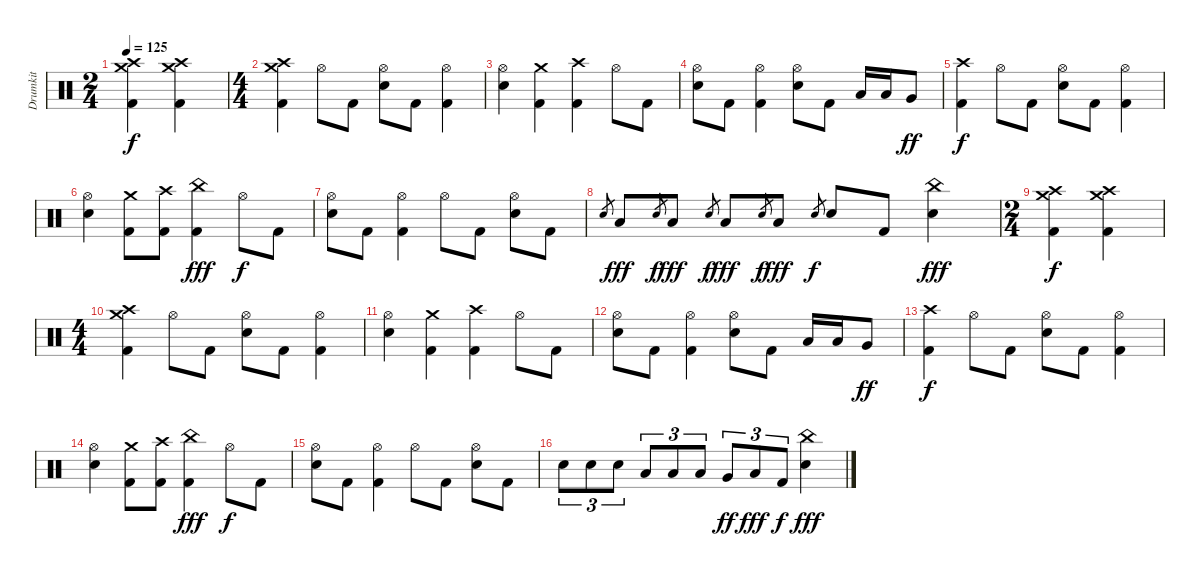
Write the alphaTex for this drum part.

\track ("Drumkit" "Drumkit") {instrument percussion}
\staff {score}
\articulation defaults
\ts (2 4)
\tempo 125
\clef neutral
\ks c
("Crash high (hit)" "Crash medium (hit)" "Kick (hit) 2").4{dy f} ("Crash high (hit)" "Crash medium (hit)" "Kick (hit) 2").4 |
\ts (4 4)
("Crash high (hit)" "Crash medium (hit)" "Kick (hit) 2").4 "Hi-Hat (open)".8 "Kick (hit) 2".8 ("Hi-Hat (open)" "Electric Snare (hit)").8 "Kick (hit) 2".8 ("Hi-Hat (open)" "Kick (hit) 2").4 |
("Hi-Hat (open)" "Electric Snare (hit)").4 ("Crash medium (hit)" "Kick (hit) 2").4 ("Crash high (hit)" "Kick (hit) 2").4 "Hi-Hat (open)".8 "Kick (hit) 2".8 |
("Hi-Hat (open)" "Electric Snare (hit)").8 "Kick (hit) 2".8 ("Hi-Hat (open)" "Kick (hit) 2").4 ("Hi-Hat (open)" "Electric Snare (hit)").8 "Kick (hit) 2".8 "Low Tom (hit)".16 "Low Tom (hit)".16 "Very Low Tom (hit)".8{dy ff} |
("Crash high (hit)" "Kick (hit) 2").4{dy f} "Hi-Hat (open)".8 "Kick (hit) 2".8 ("Hi-Hat (open)" "Electric Snare (hit)").8 "Kick (hit) 2".8 ("Hi-Hat (open)" "Kick (hit) 2").4 |
("Hi-Hat (open)" "Electric Snare (hit)").4 ("Crash medium (hit)" "Kick (hit) 2").8 ("Crash high (hit)" "Kick (hit) 2").8 ("China (hit)" "Kick (hit) 2").4{dy fff} "Hi-Hat (open)".8{dy f} "Kick (hit) 2".8 |
("Hi-Hat (open)" "Electric Snare (hit)").8 "Kick (hit) 2".8 ("Hi-Hat (open)" "Kick (hit) 2").4 "Hi-Hat (open)".8 "Kick (hit) 2".8 ("Hi-Hat (open)" "Electric Snare (hit)").8 "Kick (hit) 2".8 |
"Electric Snare (hit)".8{gr} "Low Floor Tom (hit)".8{dy fff} "Electric Snare (hit)".8{gr dy f} "Low Floor Tom (hit)".8{dy fff} "Electric Snare (hit)".8{gr dy f} "Low Floor Tom (hit)".8{dy fff} "Electric Snare (hit)".8{gr dy f} "Low Floor Tom (hit)".8{dy fff} "Electric Snare (hit)".8{gr dy f} "Electric Snare (hit)".8 "Kick (hit) 2".8 ("China (hit)" "Electric Snare (hit)").4{dy fff} |
\ts (2 4)
("Crash high (hit)" "Crash medium (hit)" "Kick (hit) 2").4{dy f} ("Crash high (hit)" "Crash medium (hit)" "Kick (hit) 2").4 |
\ts (4 4)
("Crash high (hit)" "Crash medium (hit)" "Kick (hit) 2").4 "Hi-Hat (open)".8 "Kick (hit) 2".8 ("Hi-Hat (open)" "Electric Snare (hit)").8 "Kick (hit) 2".8 ("Hi-Hat (open)" "Kick (hit) 2").4 |
("Hi-Hat (open)" "Electric Snare (hit)").4 ("Crash medium (hit)" "Kick (hit) 2").4 ("Crash high (hit)" "Kick (hit) 2").4 "Hi-Hat (open)".8 "Kick (hit) 2".8 |
("Hi-Hat (open)" "Electric Snare (hit)").8 "Kick (hit) 2".8 ("Hi-Hat (open)" "Kick (hit) 2").4 ("Hi-Hat (open)" "Electric Snare (hit)").8 "Kick (hit) 2".8 "Low Tom (hit)".16 "Low Tom (hit)".16 "Very Low Tom (hit)".8{dy ff} |
("Crash high (hit)" "Kick (hit) 2").4{dy f} "Hi-Hat (open)".8 "Kick (hit) 2".8 ("Hi-Hat (open)" "Electric Snare (hit)").8 "Kick (hit) 2".8 ("Hi-Hat (open)" "Kick (hit) 2").4 |
("Hi-Hat (open)" "Electric Snare (hit)").4 ("Crash medium (hit)" "Kick (hit) 2").8 ("Crash high (hit)" "Kick (hit) 2").8 ("China (hit)" "Kick (hit) 2").4{dy fff} "Hi-Hat (open)".8{dy f} "Kick (hit) 2".8 |
("Hi-Hat (open)" "Electric Snare (hit)").8 "Kick (hit) 2".8 ("Hi-Hat (open)" "Kick (hit) 2").4 "Hi-Hat (open)".8 "Kick (hit) 2".8 ("Hi-Hat (open)" "Electric Snare (hit)").8 "Kick (hit) 2".8 |
"Electric Snare (hit)".8{tu (3 2)} "Electric Snare (hit)".8{tu (3 2)} "Electric Snare (hit)".8{tu (3 2)} "Low Tom (hit)".8{tu (3 2)} "Low Tom (hit)".8{tu (3 2)} "Low Tom (hit)".8{tu (3 2)} "Very Low Tom (hit)".8{tu (3 2) dy ff} "Low Floor Tom (hit)".8{tu (3 2) dy fff} "Kick (hit) 2".8{tu (3 2) dy f} ("China (hit)" "Electric Snare (hit)").4{dy fff}
